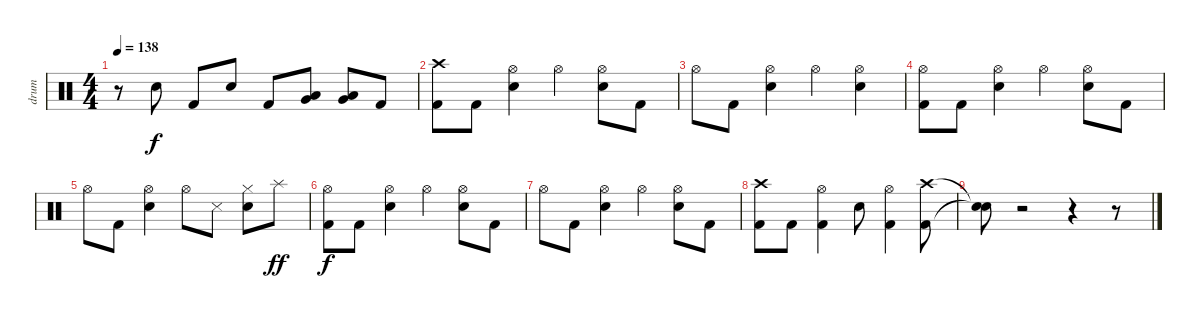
\track ("drum" "drum") {instrument percussion}
\staff {score}
\articulation defaults
\ts (4 4)
\tempo 138
\clef neutral
\ks c
r.8{dy f} "Snare (hit) 2".8 "Kick (hit) 2".8 "Snare (hit) 2".8 "Kick (hit) 2".8 ("Low Tom (hit)" "Very Low Tom (hit)").8 ("Low Tom (hit)" "Very Low Tom (hit)").8 "Kick (hit) 2".8 |
("Crash high (hit)" "Kick (hit) 2").8 "Kick (hit) 2".8 ("Hi-Hat (open)" "Snare (hit) 2").4 "Hi-Hat (open)".4 ("Hi-Hat (open)" "Snare (hit) 2").8 "Kick (hit) 2".8 |
"Hi-Hat (open)".8 "Kick (hit) 2".8 ("Hi-Hat (open)" "Snare (hit) 2").4 "Hi-Hat (open)".4 ("Hi-Hat (open)" "Snare (hit) 2").4 |
("Hi-Hat (open)" "Kick (hit) 2").8 "Kick (hit) 2".8 ("Hi-Hat (open)" "Snare (hit) 2").4 "Hi-Hat (open)".4 ("Hi-Hat (open)" "Snare (hit) 2").8 "Kick (hit) 2".8 |
"Hi-Hat (open)".8 "Kick (hit) 2".8 ("Hi-Hat (open)" "Snare (hit) 2").4 "Hi-Hat (open)".8 "Snare (side stick) 3".8 ("Hi-Hat (closed)" "Snare (hit) 2").8 "Splash (hit)".8{dy ff} |
("Hi-Hat (open)" "Kick (hit) 2").8{dy f} "Kick (hit) 2".8 ("Hi-Hat (open)" "Snare (hit) 2").4 "Hi-Hat (open)".4 ("Hi-Hat (open)" "Snare (hit) 2").8 "Kick (hit) 2".8 |
"Hi-Hat (open)".8 "Kick (hit) 2".8 ("Hi-Hat (open)" "Snare (hit) 2").4 "Hi-Hat (open)".4 ("Hi-Hat (open)" "Snare (hit) 2").8 "Kick (hit) 2".8 |
("Crash high (hit)" "Kick (hit) 2").8 "Kick (hit) 2".8 ("Hi-Hat (open)" "Kick (hit) 2").4 "Snare (hit) 2".8 ("Hi-Hat (open)" "Kick (hit) 2").4 ("Crash high (hit)" "Kick (hit) 2").8 |
("Snare (hit)"{t} "Snare (hit)"{t}).8 r.2 r.4 r.8
